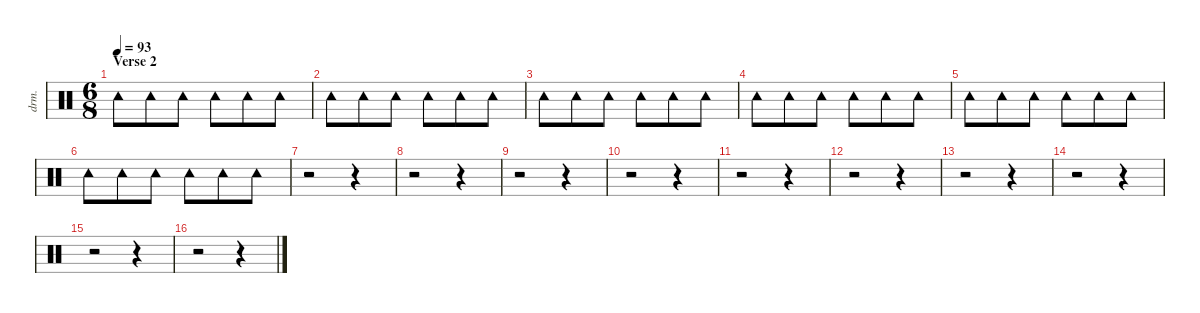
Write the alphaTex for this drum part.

\defaultSystemsLayout 4
\hideDynamics
\bracketExtendMode nobrackets
\otherSystemsTrackNameOrientation horizontal
\track ("Tambourine" "drm.") {instrument percussion}
\staff {score}
\articulation defaults
\ts (6 8)
\section ("" "Verse 2")
\tempo 93
\clef neutral
\ks c "Tambourine (hit)".8{dy fff beam Down} "Tambourine (hit)".8{beam Down} "Tambourine (hit)".8{beam Down} "Tambourine (hit)".8{beam Down} "Tambourine (hit)".8{beam Down} "Tambourine (hit)".8{beam Down}
|
"Tambourine (hit)".8{beam Down} "Tambourine (hit)".8{beam Down} "Tambourine (hit)".8{beam Down} "Tambourine (hit)".8{beam Down} "Tambourine (hit)".8{beam Down} "Tambourine (hit)".8{beam Down} |
"Tambourine (hit)".8{beam Down} "Tambourine (hit)".8{beam Down} "Tambourine (hit)".8{beam Down} "Tambourine (hit)".8{beam Down} "Tambourine (hit)".8{beam Down} "Tambourine (hit)".8{beam Down} |
"Tambourine (hit)".8{beam Down} "Tambourine (hit)".8{beam Down} "Tambourine (hit)".8{beam Down} "Tambourine (hit)".8{beam Down} "Tambourine (hit)".8{beam Down} "Tambourine (hit)".8{beam Down} |
"Tambourine (hit)".8{beam Down} "Tambourine (hit)".8{beam Down} "Tambourine (hit)".8{beam Down} "Tambourine (hit)".8{beam Down} "Tambourine (hit)".8{beam Down} "Tambourine (hit)".8{beam Down} |
"Tambourine (hit)".8{beam Down} "Tambourine (hit)".8{beam Down} "Tambourine (hit)".8{beam Down} "Tambourine (hit)".8{beam Down} "Tambourine (hit)".8{beam Down} "Tambourine (hit)".8{beam Down} |
r.2{beam Down} r.4{beam Down} |
r.2{beam Down} r.4{beam Down} |
r.2{beam Down} r.4{beam Down} |
r.2{beam Down} r.4{beam Down} |
r.2{beam Down} r.4{beam Down} |
r.2{beam Down} r.4{beam Down} |
r.2{beam Down} r.4{beam Down} |
r.2{beam Down} r.4{beam Down} |
r.2{beam Down} r.4{beam Down} |
r.2{beam Down} r.4{beam Down}
